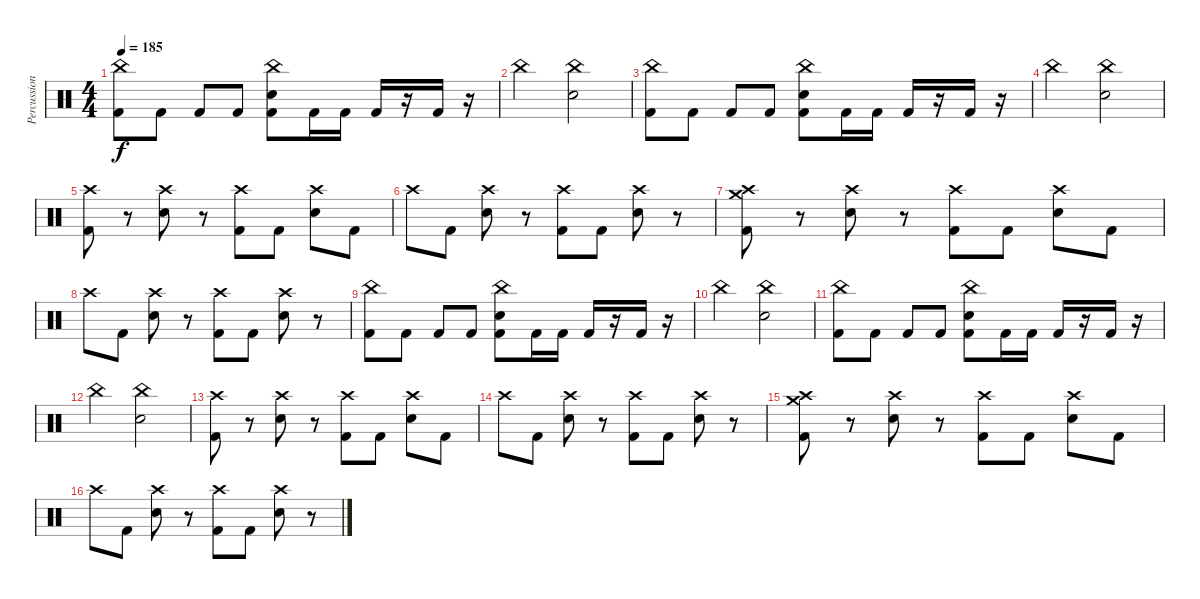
\track ("Percussion" "Percussion") {instrument percussion}
\staff {score}
\articulation defaults
\ts (4 4)
\tempo 185
\clef neutral
\ks c
("China (hit)" "Kick (hit) 2").8{dy f} "Kick (hit) 2".8 "Kick (hit) 2".8 "Kick (hit) 2".8 ("Snare (hit) 2" "China (hit)" "Kick (hit) 2").8 "Kick (hit) 2".16 "Kick (hit) 2".16 "Kick (hit) 2".16 r.16 "Kick (hit) 2".16 r.16 |
"China (hit)".2 ("Snare (hit) 2" "China (hit)").2 |
("China (hit)" "Kick (hit) 2").8 "Kick (hit) 2".8 "Kick (hit) 2".8 "Kick (hit) 2".8 ("Snare (hit) 2" "China (hit)" "Kick (hit) 2").8 "Kick (hit) 2".16 "Kick (hit) 2".16 "Kick (hit) 2".16 r.16 "Kick (hit) 2".16 r.16 |
"China (hit)".2 ("Snare (hit) 2" "China (hit)").2 |
("Crash high (hit)" "Kick (hit) 2").8 r.8 ("Snare (hit) 2" "Crash high (hit)").8 r.8 ("Crash high (hit)" "Kick (hit) 2").8 "Kick (hit) 2".8 ("Snare (hit) 2" "Crash high (hit)").8 "Kick (hit) 2".8 |
"Crash high (hit)".8 "Kick (hit) 2".8 ("Snare (hit) 2" "Crash high (hit)").8 r.8 ("Crash high (hit)" "Kick (hit) 2").8 "Kick (hit) 2".8 ("Snare (hit) 2" "Crash high (hit)").8 r.8 |
("Crash medium (hit)" "Crash high (hit)" "Kick (hit) 2").8 r.8 ("Snare (hit) 2" "Crash high (hit)").8 r.8 ("Crash high (hit)" "Kick (hit) 2").8 "Kick (hit) 2".8 ("Snare (hit) 2" "Crash high (hit)").8 "Kick (hit) 2".8 |
"Crash high (hit)".8 "Kick (hit) 2".8 ("Snare (hit) 2" "Crash high (hit)").8 r.8 ("Crash high (hit)" "Kick (hit) 2").8 "Kick (hit) 2".8 ("Snare (hit) 2" "Crash high (hit)").8 r.8 |
("China (hit)" "Kick (hit) 2").8 "Kick (hit) 2".8 "Kick (hit) 2".8 "Kick (hit) 2".8 ("Snare (hit) 2" "China (hit)" "Kick (hit) 2").8 "Kick (hit) 2".16 "Kick (hit) 2".16 "Kick (hit) 2".16 r.16 "Kick (hit) 2".16 r.16 |
"China (hit)".2 ("Snare (hit) 2" "China (hit)").2 |
("China (hit)" "Kick (hit) 2").8 "Kick (hit) 2".8 "Kick (hit) 2".8 "Kick (hit) 2".8 ("Snare (hit) 2" "China (hit)" "Kick (hit) 2").8 "Kick (hit) 2".16 "Kick (hit) 2".16 "Kick (hit) 2".16 r.16 "Kick (hit) 2".16 r.16 |
"China (hit)".2 ("Snare (hit) 2" "China (hit)").2 |
("Crash high (hit)" "Kick (hit) 2").8 r.8 ("Snare (hit) 2" "Crash high (hit)").8 r.8 ("Crash high (hit)" "Kick (hit) 2").8 "Kick (hit) 2".8 ("Snare (hit) 2" "Crash high (hit)").8 "Kick (hit) 2".8 |
"Crash high (hit)".8 "Kick (hit) 2".8 ("Snare (hit) 2" "Crash high (hit)").8 r.8 ("Crash high (hit)" "Kick (hit) 2").8 "Kick (hit) 2".8 ("Snare (hit) 2" "Crash high (hit)").8 r.8 |
("Crash medium (hit)" "Crash high (hit)" "Kick (hit) 2").8 r.8 ("Snare (hit) 2" "Crash high (hit)").8 r.8 ("Crash high (hit)" "Kick (hit) 2").8 "Kick (hit) 2".8 ("Snare (hit) 2" "Crash high (hit)").8 "Kick (hit) 2".8 |
"Crash high (hit)".8 "Kick (hit) 2".8 ("Snare (hit) 2" "Crash high (hit)").8 r.8 ("Crash high (hit)" "Kick (hit) 2").8 "Kick (hit) 2".8 ("Snare (hit) 2" "Crash high (hit)").8 r.8
